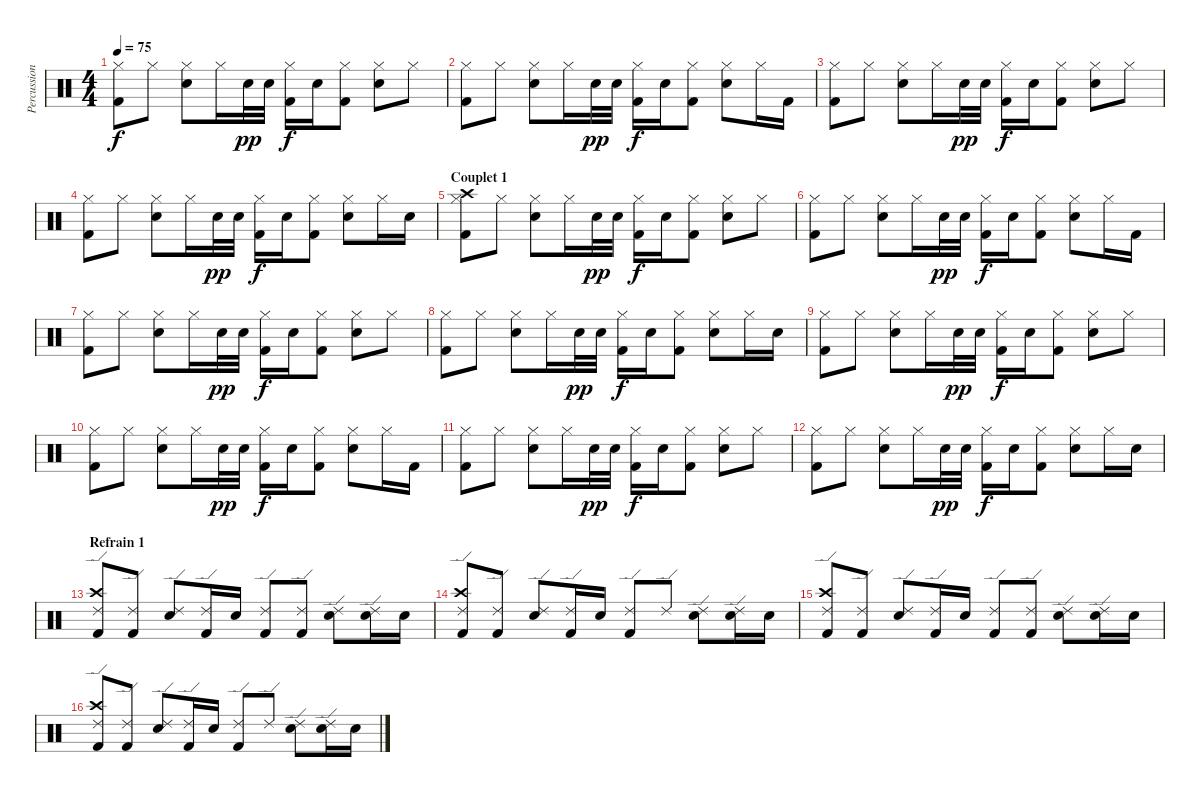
\track ("Percussions" "Percussion") {instrument percussion}
\staff {score}
\articulation defaults
\ts (4 4)
\tempo 75
\clef neutral
\ks c
("Kick (hit) 2" "Hi-Hat (closed)").8{dy f} "Hi-Hat (closed)".8 ("Snare (hit) 2" "Hi-Hat (closed)").8 "Hi-Hat (closed)".16 "Snare (hit) 2".32{dy pp} "Snare (hit) 2".32 ("Kick (hit) 2" "Hi-Hat (closed)").16{dy f} "Snare (hit) 2".16 ("Kick (hit) 2" "Hi-Hat (closed)").8 ("Snare (hit) 2" "Hi-Hat (closed)").8 "Hi-Hat (closed)".8 |
("Kick (hit) 2" "Hi-Hat (closed)").8 "Hi-Hat (closed)".8 ("Snare (hit) 2" "Hi-Hat (closed)").8 "Hi-Hat (closed)".16 "Snare (hit) 2".32{dy pp} "Snare (hit) 2".32 ("Kick (hit) 2" "Hi-Hat (closed)").16{dy f} "Snare (hit) 2".16 ("Kick (hit) 2" "Hi-Hat (closed)").8 ("Snare (hit) 2" "Hi-Hat (closed)").8 "Hi-Hat (closed)".16 "Kick (hit) 2".16 |
("Kick (hit) 2" "Hi-Hat (closed)").8 "Hi-Hat (closed)".8 ("Snare (hit) 2" "Hi-Hat (closed)").8 "Hi-Hat (closed)".16 "Snare (hit) 2".32{dy pp} "Snare (hit) 2".32 ("Kick (hit) 2" "Hi-Hat (closed)").16{dy f} "Snare (hit) 2".16 ("Kick (hit) 2" "Hi-Hat (closed)").8 ("Snare (hit) 2" "Hi-Hat (closed)").8 "Hi-Hat (closed)".8 |
("Kick (hit) 2" "Hi-Hat (closed)").8 "Hi-Hat (closed)".8 ("Snare (hit) 2" "Hi-Hat (closed)").8 "Hi-Hat (closed)".16 "Snare (hit) 2".32{dy pp} "Snare (hit) 2".32 ("Kick (hit) 2" "Hi-Hat (closed)").16{dy f} "Snare (hit) 2".16 ("Kick (hit) 2" "Hi-Hat (closed)").8 ("Snare (hit) 2" "Hi-Hat (closed)").8 "Hi-Hat (closed)".16 "Snare (hit) 2".16 |
\section ("" "Couplet 1")
("Crash high (hit)" "Kick (hit) 2" "Hi-Hat (closed)").8 "Hi-Hat (closed)".8 ("Snare (hit) 2" "Hi-Hat (closed)").8 "Hi-Hat (closed)".16 "Snare (hit) 2".32{dy pp} "Snare (hit) 2".32 ("Kick (hit) 2" "Hi-Hat (closed)").16{dy f} "Snare (hit) 2".16 ("Kick (hit) 2" "Hi-Hat (closed)").8 ("Snare (hit) 2" "Hi-Hat (closed)").8 "Hi-Hat (closed)".8 |
("Kick (hit) 2" "Hi-Hat (closed)").8 "Hi-Hat (closed)".8 ("Snare (hit) 2" "Hi-Hat (closed)").8 "Hi-Hat (closed)".16 "Snare (hit) 2".32{dy pp} "Snare (hit) 2".32 ("Kick (hit) 2" "Hi-Hat (closed)").16{dy f} "Snare (hit) 2".16 ("Kick (hit) 2" "Hi-Hat (closed)").8 ("Snare (hit) 2" "Hi-Hat (closed)").8 "Hi-Hat (closed)".16 "Kick (hit) 2".16 |
("Kick (hit) 2" "Hi-Hat (closed)").8 "Hi-Hat (closed)".8 ("Snare (hit) 2" "Hi-Hat (closed)").8 "Hi-Hat (closed)".16 "Snare (hit) 2".32{dy pp} "Snare (hit) 2".32 ("Kick (hit) 2" "Hi-Hat (closed)").16{dy f} "Snare (hit) 2".16 ("Kick (hit) 2" "Hi-Hat (closed)").8 ("Snare (hit) 2" "Hi-Hat (closed)").8 "Hi-Hat (closed)".8 |
("Kick (hit) 2" "Hi-Hat (closed)").8 "Hi-Hat (closed)".8 ("Snare (hit) 2" "Hi-Hat (closed)").8 "Hi-Hat (closed)".16 "Snare (hit) 2".32{dy pp} "Snare (hit) 2".32 ("Kick (hit) 2" "Hi-Hat (closed)").16{dy f} "Snare (hit) 2".16 ("Kick (hit) 2" "Hi-Hat (closed)").8 ("Snare (hit) 2" "Hi-Hat (closed)").8 "Hi-Hat (closed)".16 "Snare (hit) 2".16 |
("Kick (hit) 2" "Hi-Hat (closed)").8 "Hi-Hat (closed)".8 ("Snare (hit) 2" "Hi-Hat (closed)").8 "Hi-Hat (closed)".16 "Snare (hit) 2".32{dy pp} "Snare (hit) 2".32 ("Kick (hit) 2" "Hi-Hat (closed)").16{dy f} "Snare (hit) 2".16 ("Kick (hit) 2" "Hi-Hat (closed)").8 ("Snare (hit) 2" "Hi-Hat (closed)").8 "Hi-Hat (closed)".8 |
("Kick (hit) 2" "Hi-Hat (closed)").8 "Hi-Hat (closed)".8 ("Snare (hit) 2" "Hi-Hat (closed)").8 "Hi-Hat (closed)".16 "Snare (hit) 2".32{dy pp} "Snare (hit) 2".32 ("Kick (hit) 2" "Hi-Hat (closed)").16{dy f} "Snare (hit) 2".16 ("Kick (hit) 2" "Hi-Hat (closed)").8 ("Snare (hit) 2" "Hi-Hat (closed)").8 "Hi-Hat (closed)".16 "Kick (hit) 2".16 |
("Kick (hit) 2" "Hi-Hat (closed)").8 "Hi-Hat (closed)".8 ("Snare (hit) 2" "Hi-Hat (closed)").8 "Hi-Hat (closed)".16 "Snare (hit) 2".32{dy pp} "Snare (hit) 2".32 ("Kick (hit) 2" "Hi-Hat (closed)").16{dy f} "Snare (hit) 2".16 ("Kick (hit) 2" "Hi-Hat (closed)").8 ("Snare (hit) 2" "Hi-Hat (closed)").8 "Hi-Hat (closed)".8 |
("Kick (hit) 2" "Hi-Hat (closed)").8 "Hi-Hat (closed)".8 ("Snare (hit) 2" "Hi-Hat (closed)").8 "Hi-Hat (closed)".16 "Snare (hit) 2".32{dy pp} "Snare (hit) 2".32 ("Kick (hit) 2" "Hi-Hat (closed)").16{dy f} "Snare (hit) 2".16 ("Kick (hit) 2" "Hi-Hat (closed)").8 ("Snare (hit) 2" "Hi-Hat (closed)").8 "Hi-Hat (closed)".16 "Snare (hit) 2".16 |
\section ("" "Refrain 1")
("Crash high (hit)" "Kick (hit) 2" "Ride (edge) 2").8 ("Kick (hit) 2" "Ride (edge) 2").8 ("Snare (hit) 2" "Ride (edge) 2").8 ("Kick (hit) 2" "Ride (edge) 2").16 "Snare (hit) 2".16 ("Kick (hit) 2" "Ride (edge) 2").8 ("Kick (hit) 2" "Ride (edge) 2").8 ("Snare (hit) 2" "Ride (edge) 2").8 ("Snare (hit) 2" "Ride (edge) 2").16 "Snare (hit) 2".16 |
("Crash high (hit)" "Kick (hit) 2" "Ride (edge) 2").8 ("Kick (hit) 2" "Ride (edge) 2").8 ("Snare (hit) 2" "Ride (edge) 2").8 ("Kick (hit) 2" "Ride (edge) 2").16 "Snare (hit) 2".16 ("Kick (hit) 2" "Ride (edge) 2").8 "Ride (edge) 2".8 ("Snare (hit) 2" "Ride (edge) 2").8 ("Snare (hit) 2" "Ride (edge) 2").16 "Snare (hit) 2".16 |
("Crash high (hit)" "Kick (hit) 2" "Ride (edge) 2").8 ("Kick (hit) 2" "Ride (edge) 2").8 ("Snare (hit) 2" "Ride (edge) 2").8 ("Kick (hit) 2" "Ride (edge) 2").16 "Snare (hit) 2".16 ("Kick (hit) 2" "Ride (edge) 2").8 ("Kick (hit) 2" "Ride (edge) 2").8 ("Snare (hit) 2" "Ride (edge) 2").8 ("Snare (hit) 2" "Ride (edge) 2").16 "Snare (hit) 2".16 |
("Crash high (hit)" "Kick (hit) 2" "Ride (edge) 2").8 ("Kick (hit) 2" "Ride (edge) 2").8 ("Snare (hit) 2" "Ride (edge) 2").8 ("Kick (hit) 2" "Ride (edge) 2").16 "Snare (hit) 2".16 ("Kick (hit) 2" "Ride (edge) 2").8 "Ride (edge) 2".8 ("Snare (hit) 2" "Ride (edge) 2").8 ("Snare (hit) 2" "Ride (edge) 2").16 "Snare (hit) 2".16
